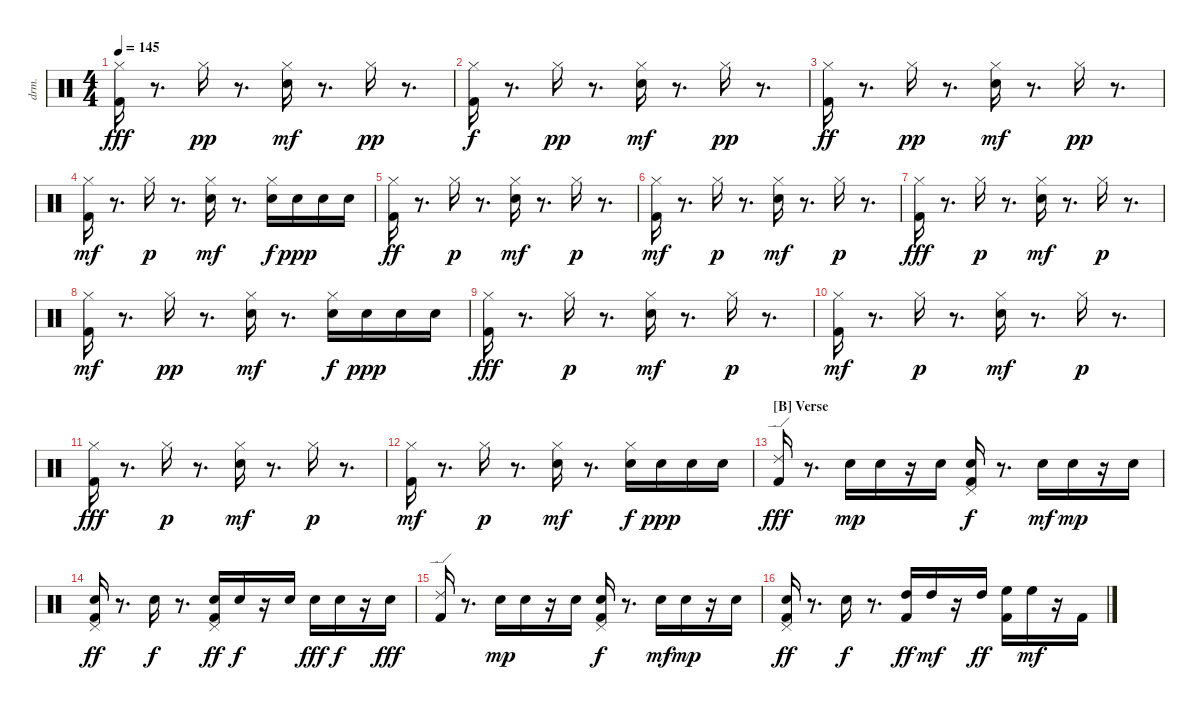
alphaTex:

\bracketExtendMode nobrackets
\track ("EZdrummer 3" "drm.") {instrument percussion}
\staff {score}
\articulation defaults
\ts (4 4)
\tempo 145
\clef neutral
\ks aminor
("Kick (hit) 2" "Hi-Hat (closed)"{acc #}).16{dy fff} r.8{d} "Hi-Hat (closed)"{acc #}.16{dy pp} r.8{d} ("Snare (hit) 2" "Hi-Hat (closed)"{acc #}).16{dy mf} r.8{d} "Hi-Hat (closed)"{acc #}.16{dy pp} r.8{d} |
("Kick (hit) 2" "Hi-Hat (closed)"{acc #}).16{dy f} r.8{d} "Hi-Hat (closed)"{acc #}.16{dy pp} r.8{d} ("Snare (hit) 2" "Hi-Hat (closed)"{acc #}).16{dy mf} r.8{d} "Hi-Hat (closed)"{acc #}.16{dy pp} r.8{d} |
("Kick (hit) 2" "Hi-Hat (closed)"{acc #}).16{dy ff} r.8{d} "Hi-Hat (closed)"{acc #}.16{dy pp} r.8{d} ("Snare (hit) 2" "Hi-Hat (closed)"{acc #}).16{dy mf} r.8{d} "Hi-Hat (closed)"{acc #}.16{dy pp} r.8{d} |
("Kick (hit) 2" "Hi-Hat (closed)"{acc #}).16{dy mf} r.8{d} "Hi-Hat (closed)"{acc #}.16{dy p} r.8{d} ("Snare (hit) 2" "Hi-Hat (closed)"{acc #}).16{dy mf} r.8{d} ("Snare (hit) 2" "Hi-Hat (closed)"{acc #}).16{dy f} "Snare (hit) 2".16{dy ppp} "Snare (hit) 2".16 "Snare (hit) 2".16 |
("Kick (hit) 2" "Hi-Hat (closed)"{acc #}).16{dy ff} r.8{d} "Hi-Hat (closed)"{acc #}.16{dy p} r.8{d} ("Snare (hit) 2" "Hi-Hat (closed)"{acc #}).16{dy mf} r.8{d} "Hi-Hat (closed)"{acc #}.16{dy p} r.8{d} |
("Kick (hit) 2" "Hi-Hat (closed)"{acc #}).16{dy mf} r.8{d} "Hi-Hat (closed)"{acc #}.16{dy p} r.8{d} ("Snare (hit) 2" "Hi-Hat (closed)"{acc #}).16{dy mf} r.8{d} "Hi-Hat (closed)"{acc #}.16{dy p} r.8{d} |
("Kick (hit) 2" "Hi-Hat (closed)"{acc #}).16{dy fff} r.8{d} "Hi-Hat (closed)"{acc #}.16{dy p} r.8{d} ("Snare (hit) 2" "Hi-Hat (closed)"{acc #}).16{dy mf} r.8{d} "Hi-Hat (closed)"{acc #}.16{dy p} r.8{d} |
("Kick (hit) 2" "Hi-Hat (closed)"{acc #}).16{dy mf} r.8{d} "Hi-Hat (closed)"{acc #}.16{dy pp} r.8{d} ("Snare (hit) 2" "Hi-Hat (closed)"{acc #}).16{dy mf} r.8{d} ("Snare (hit) 2" "Hi-Hat (closed)"{acc #}).16{dy f} "Snare (hit) 2".16{dy ppp} "Snare (hit) 2".16 "Snare (hit) 2".16 |
("Kick (hit) 2" "Hi-Hat (closed)"{acc #}).16{dy fff} r.8{d} "Hi-Hat (closed)"{acc #}.16{dy p} r.8{d} ("Snare (hit) 2" "Hi-Hat (closed)"{acc #}).16{dy mf} r.8{d} "Hi-Hat (closed)"{acc #}.16{dy p} r.8{d} |
("Kick (hit) 2" "Hi-Hat (closed)"{acc #}).16{dy mf} r.8{d} "Hi-Hat (closed)"{acc #}.16{dy p} r.8{d} ("Snare (hit) 2" "Hi-Hat (closed)"{acc #}).16{dy mf} r.8{d} "Hi-Hat (closed)"{acc #}.16{dy p} r.8{d} |
("Kick (hit) 2" "Hi-Hat (closed)"{acc #}).16{dy fff} r.8{d} "Hi-Hat (closed)"{acc #}.16{dy p} r.8{d} ("Snare (hit) 2" "Hi-Hat (closed)"{acc #}).16{dy mf} r.8{d} "Hi-Hat (closed)"{acc #}.16{dy p} r.8{d} |
("Kick (hit) 2" "Hi-Hat (closed)"{acc #}).16{dy mf} r.8{d} "Hi-Hat (closed)"{acc #}.16{dy p} r.8{d} ("Snare (hit) 2" "Hi-Hat (closed)"{acc #}).16{dy mf} r.8{d} ("Snare (hit) 2" "Hi-Hat (closed)"{acc #}).16{dy f} "Snare (hit) 2".16{dy ppp} "Snare (hit) 2".16 "Snare (hit) 2".16 |
\section ("B" "Verse")
("Kick (hit) 2" "Ride (edge) 2").16{dy fff} r.8{d} "Snare (hit) 2".16{dy mp} "Snare (hit) 2".16 r.16 "Snare (hit) 2".16 ("Kick (hit) 2" "Snare (hit) 2" "Pedal Hi-Hat (hit)"{acc #}).16{dy f} r.8{d} "Snare (hit) 2".16{dy mf} "Snare (hit) 2".16{dy mp} r.16 "Snare (hit) 2".16 |
("Kick (hit) 2" "Snare (hit) 2" "Pedal Hi-Hat (hit)"{acc #}).16{dy ff} r.8{d} "Snare (hit) 2".16{dy f} r.8{d} ("Kick (hit) 2" "Snare (hit) 2" "Pedal Hi-Hat (hit)"{acc #}).16{dy ff} "Snare (hit) 2".16{dy f} r.16 "Snare (hit) 2".16 "Snare (hit) 2".16{dy fff} "Snare (hit) 2".16{dy f} r.16 "Snare (hit) 2".16{dy fff} |
("Kick (hit) 2" "Ride (edge) 2").16 r.8{d} "Snare (hit) 2".16{dy mp} "Snare (hit) 2".16 r.16 "Snare (hit) 2".16 ("Kick (hit) 2" "Snare (hit) 2" "Pedal Hi-Hat (hit)"{acc #}).16{dy f} r.8{d} "Snare (hit) 2".16{dy mf} "Snare (hit) 2".16{dy mp} r.16 "Snare (hit) 2".16 |
("Kick (hit) 2" "Snare (hit) 2" "Pedal Hi-Hat (hit)"{acc #}).16{dy ff} r.8{d} "Snare (hit) 2".16{dy f} r.8{d} ("Kick (hit) 2" "High Tom (hit)").16{dy ff} "High Tom (hit)".16{dy mf} r.16 "High Tom (hit)".16{dy ff} ("Kick (hit) 2" "High Floor Tom (hit)").16 "High Floor Tom (hit)".16{dy mf} r.16 "Kick (hit) 2".16
